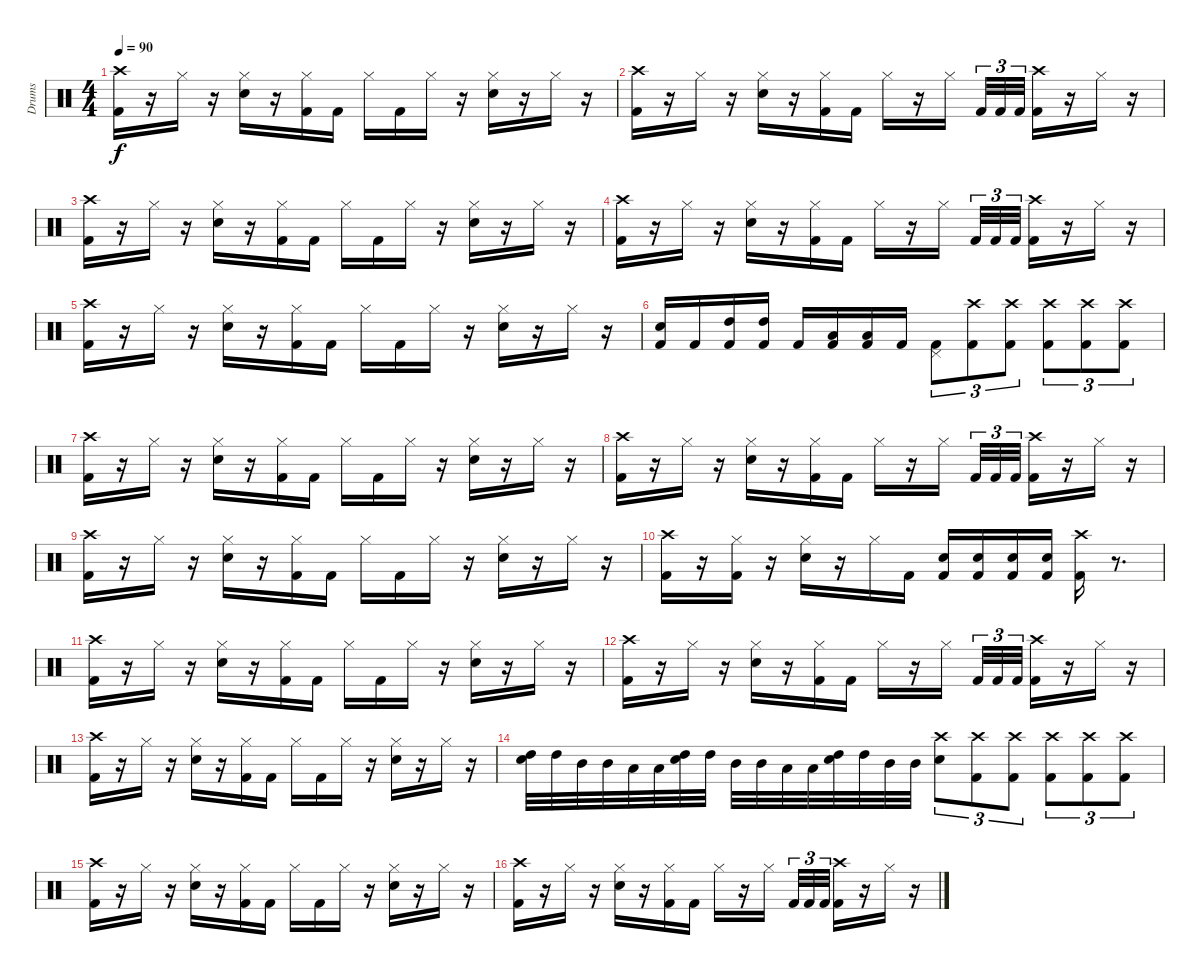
\track ("Drums" "Drums") {instrument percussion}
\staff {score}
\articulation defaults
\ts (4 4)
\tempo 90
\clef neutral
\ks c
("Kick (hit) 2" "Crash high (hit)").16{dy f} r.16 "Hi-Hat (closed)".16 r.16 ("Electric Snare (hit)" "Hi-Hat (closed)").16 r.16 ("Kick (hit) 2" "Hi-Hat (closed)").16 "Kick (hit) 2".16 "Hi-Hat (closed)".16 "Kick (hit) 2".16 "Hi-Hat (closed)".16 r.16 ("Electric Snare (hit)" "Hi-Hat (closed)").16 r.16 "Hi-Hat (closed)".16 r.16 |
("Crash high (hit)" "Kick (hit) 2").16 r.16 "Hi-Hat (closed)".16 r.16 ("Electric Snare (hit)" "Hi-Hat (closed)").16 r.16 ("Kick (hit) 2" "Hi-Hat (closed)").16 "Kick (hit) 2".16 "Hi-Hat (closed)".16 r.16 "Hi-Hat (closed)".16{beam splitsecondary} "Kick (hit) 2".32{tu (3 2)} "Kick (hit) 2".32{tu (3 2)} "Kick (hit) 2".32{tu (3 2)} ("Kick (hit) 2" "Crash high (hit)").16 r.16 "Hi-Hat (closed)".16 r.16 |
("Kick (hit) 2" "Crash high (hit)").16 r.16 "Hi-Hat (closed)".16 r.16 ("Electric Snare (hit)" "Hi-Hat (closed)").16 r.16 ("Kick (hit) 2" "Hi-Hat (closed)").16 "Kick (hit) 2".16 "Hi-Hat (closed)".16 "Kick (hit) 2".16 "Hi-Hat (closed)".16 r.16 ("Electric Snare (hit)" "Hi-Hat (closed)").16 r.16 "Hi-Hat (closed)".16 r.16 |
("Crash high (hit)" "Kick (hit) 2").16 r.16 "Hi-Hat (closed)".16 r.16 ("Electric Snare (hit)" "Hi-Hat (closed)").16 r.16 ("Kick (hit) 2" "Hi-Hat (closed)").16 "Kick (hit) 2".16 "Hi-Hat (closed)".16 r.16 "Hi-Hat (closed)".16{beam splitsecondary} "Kick (hit) 2".32{tu (3 2)} "Kick (hit) 2".32{tu (3 2)} "Kick (hit) 2".32{tu (3 2)} ("Kick (hit) 2" "Crash high (hit)").16 r.16 "Hi-Hat (closed)".16 r.16 |
("Crash high (hit)" "Kick (hit) 2").16 r.16 "Hi-Hat (closed)".16 r.16 ("Hi-Hat (closed)" "Electric Snare (hit)").16 r.16 ("Hi-Hat (closed)" "Kick (hit) 2").16 "Kick (hit) 2".16 "Hi-Hat (closed)".16 "Kick (hit) 2".16 "Hi-Hat (closed)".16 r.16 ("Hi-Hat (closed)" "Electric Snare (hit)").16 r.16 "Hi-Hat (closed)".16 r.16 |
("Electric Snare (hit)" "Kick (hit) 2").16 "Kick (hit) 2".16 ("High Tom (hit)" "Kick (hit) 2").16 ("High Tom (hit)" "Kick (hit) 2").16 "Kick (hit) 2".16 ("Low Tom (hit)" "Kick (hit) 2").16 ("Low Tom (hit)" "Kick (hit) 2").16 "Kick (hit) 2".16 ("Pedal Hi-Hat (hit)" "Kick (hit) 2").8{tu (3 2)} ("Crash high (hit)" "Kick (hit) 2").8{tu (3 2)} ("Kick (hit) 2" "Crash high (hit)").8{tu (3 2)} ("Kick (hit) 2" "Crash high (hit)").8{tu (3 2)} ("Crash high (hit)" "Kick (hit) 2").8{tu (3 2)} ("Kick (hit) 2" "Crash high (hit)").8{tu (3 2)} |
("Crash high (hit)" "Kick (hit) 2").16 r.16 "Hi-Hat (closed)".16 r.16 ("Hi-Hat (closed)" "Electric Snare (hit)").16 r.16 ("Hi-Hat (closed)" "Kick (hit) 2").16 "Kick (hit) 2".16 "Hi-Hat (closed)".16 "Kick (hit) 2".16 "Hi-Hat (closed)".16 r.16 ("Hi-Hat (closed)" "Electric Snare (hit)").16 r.16 "Hi-Hat (closed)".16 r.16 |
("Kick (hit) 2" "Crash high (hit)").16 r.16 "Hi-Hat (closed)".16 r.16 ("Hi-Hat (closed)" "Electric Snare (hit)").16 r.16 ("Hi-Hat (closed)" "Kick (hit) 2").16 "Kick (hit) 2".16 "Hi-Hat (closed)".16 r.16 "Hi-Hat (closed)".16{beam splitsecondary} "Kick (hit) 2".32{tu (3 2)} "Kick (hit) 2".32{tu (3 2)} "Kick (hit) 2".32{tu (3 2)} ("Crash high (hit)" "Kick (hit) 2").16 r.16 "Hi-Hat (closed)".16 r.16 |
("Kick (hit) 2" "Crash high (hit)").16 r.16 "Hi-Hat (closed)".16 r.16 ("Electric Snare (hit)" "Hi-Hat (closed)").16 r.16 ("Kick (hit) 2" "Hi-Hat (closed)").16 "Kick (hit) 2".16 "Hi-Hat (closed)".16 "Kick (hit) 2".16 "Hi-Hat (closed)".16 r.16 ("Electric Snare (hit)" "Hi-Hat (closed)").16 r.16 "Hi-Hat (closed)".16 r.16 |
("Crash high (hit)" "Kick (hit) 2").16 r.16 ("Kick (hit) 2" "Hi-Hat (closed)").16 r.16 ("Electric Snare (hit)" "Hi-Hat (closed)").16 r.16 "Hi-Hat (closed)".16 "Kick (hit) 2".16 ("Electric Snare (hit)" "Kick (hit) 2").16 ("Electric Snare (hit)" "Kick (hit) 2").16 ("Electric Snare (hit)" "Kick (hit) 2").16 ("Electric Snare (hit)" "Kick (hit) 2").16 ("Crash high (hit)" "Kick (hit) 2").16 r.8{d} |
("Crash high (hit)" "Kick (hit) 2").16 r.16 "Hi-Hat (closed)".16 r.16 ("Hi-Hat (closed)" "Electric Snare (hit)").16 r.16 ("Hi-Hat (closed)" "Kick (hit) 2").16 "Kick (hit) 2".16 "Hi-Hat (closed)".16 "Kick (hit) 2".16 "Hi-Hat (closed)".16 r.16 ("Hi-Hat (closed)" "Electric Snare (hit)").16 r.16 "Hi-Hat (closed)".16 r.16 |
("Crash high (hit)" "Kick (hit) 2").16 r.16 "Hi-Hat (closed)".16 r.16 ("Electric Snare (hit)" "Hi-Hat (closed)").16 r.16 ("Kick (hit) 2" "Hi-Hat (closed)").16 "Kick (hit) 2".16 "Hi-Hat (closed)".16 r.16 "Hi-Hat (closed)".16{beam splitsecondary} "Kick (hit) 2".32{tu (3 2)} "Kick (hit) 2".32{tu (3 2)} "Kick (hit) 2".32{tu (3 2)} ("Kick (hit) 2" "Crash high (hit)").16 r.16 "Hi-Hat (closed)".16 r.16 |
("Kick (hit) 2" "Crash high (hit)").16 r.16 "Hi-Hat (closed)".16 r.16 ("Electric Snare (hit)" "Hi-Hat (closed)").16 r.16 ("Kick (hit) 2" "Hi-Hat (closed)").16 "Kick (hit) 2".16 "Hi-Hat (closed)".16 "Kick (hit) 2".16 "Hi-Hat (closed)".16 r.16 ("Electric Snare (hit)" "Hi-Hat (closed)").16 r.16 "Hi-Hat (closed)".16 r.16 |
("High Tom (hit)" "Electric Snare (hit)").32 "High Tom (hit)".32 "Mid Tom (hit)".32 "Mid Tom (hit)".32 "Low Tom (hit)".32 "Low Tom (hit)".32 ("High Tom (hit)" "Electric Snare (hit)").32 "High Tom (hit)".32 "Mid Tom (hit)".32 "Mid Tom (hit)".32 "Low Tom (hit)".32 "Low Tom (hit)".32 ("High Tom (hit)" "Electric Snare (hit)").32 "High Tom (hit)".32 "Mid Tom (hit)".32 "Mid Tom (hit)".32 ("Crash high (hit)" "Electric Snare (hit)").8{tu (3 2)} ("Crash high (hit)" "Kick (hit) 2").8{tu (3 2)} ("Crash high (hit)" "Kick (hit) 2").8{tu (3 2)} ("Crash high (hit)" "Kick (hit) 2").8{tu (3 2)} ("Crash high (hit)" "Kick (hit) 2").8{tu (3 2)} ("Crash high (hit)" "Kick (hit) 2").8{tu (3 2)} |
("Kick (hit) 2" "Crash high (hit)").16{volume 13} r.16 "Hi-Hat (closed)".16{volume 13} r.16 ("Electric Snare (hit)" "Hi-Hat (closed)").16{volume 13} r.16 ("Kick (hit) 2" "Hi-Hat (closed)").16{volume 13} "Kick (hit) 2".16 "Hi-Hat (closed)".16{volume 12} "Kick (hit) 2".16{volume 12} "Hi-Hat (closed)".16{volume 12} r.16 ("Electric Snare (hit)" "Hi-Hat (closed)").16{volume 12} r.16 "Hi-Hat (closed)".16{volume 12} r.16 |
("Kick (hit) 2" "Crash high (hit)").16{volume 12} r.16 "Hi-Hat (closed)".16{volume 12} r.16 ("Hi-Hat (closed)" "Electric Snare (hit)").16{volume 11} r.16 ("Hi-Hat (closed)" "Kick (hit) 2").16{volume 11} "Kick (hit) 2".16{volume 11} "Hi-Hat (closed)".16{volume 11} r.16 "Hi-Hat (closed)".16{volume 11 beam splitsecondary} "Kick (hit) 2".32{tu (3 2) volume 11} "Kick (hit) 2".32{tu (3 2)} "Kick (hit) 2".32{tu (3 2)} ("Crash high (hit)" "Kick (hit) 2").16{volume 10} r.16 "Hi-Hat (closed)".16{volume 10} r.16
